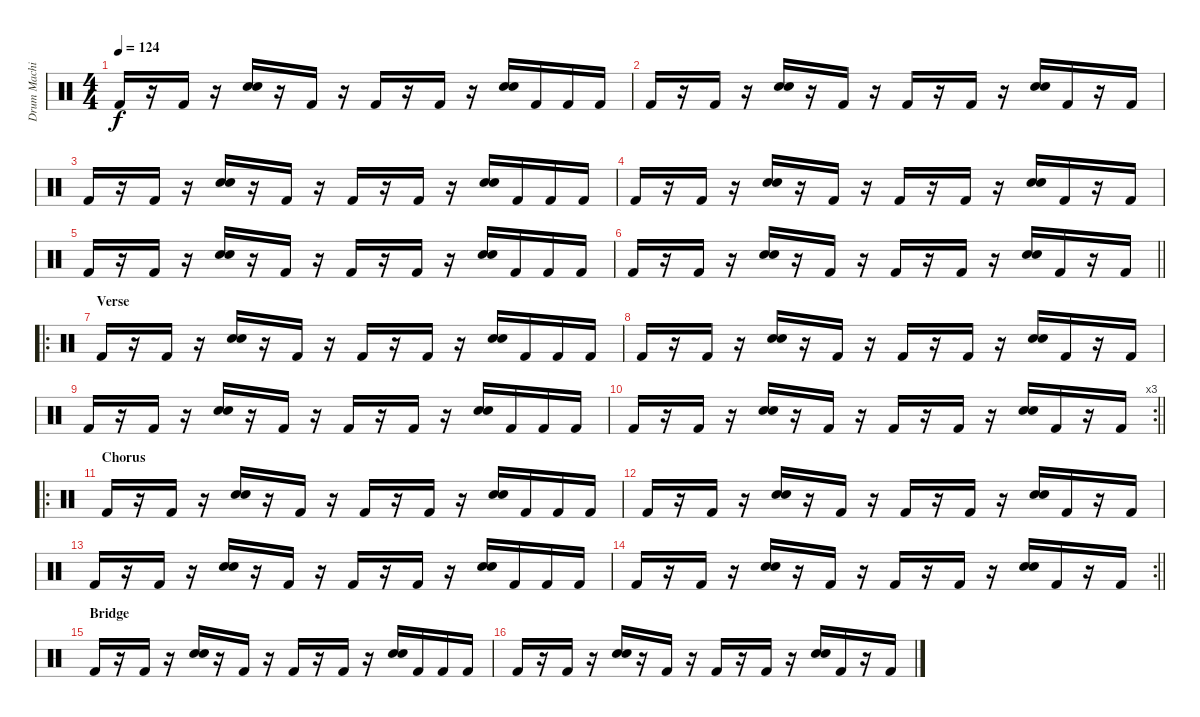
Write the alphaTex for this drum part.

\track ("Drum Machine" "Drum Machi") {instrument percussion}
\staff {score}
\articulation defaults
\ts (4 4)
\tempo 124
\clef neutral
\ks c "Kick (hit) 2".16{dy f}
r.16 "Kick (hit) 2".16 r.16 ("Electric Snare (hit)" "Hand Clap (hit)").16 r.16 "Kick (hit) 2".16 r.16 "Kick (hit) 2".16 r.16 "Kick (hit) 2".16 r.16 ("Electric Snare (hit)" "Hand Clap (hit)").16 "Kick (hit) 2".16 "Kick (hit) 2".16 "Kick (hit) 2".16 |
"Kick (hit) 2".16 r.16 "Kick (hit) 2".16 r.16 ("Electric Snare (hit)" "Hand Clap (hit)").16 r.16 "Kick (hit) 2".16 r.16 "Kick (hit) 2".16 r.16 "Kick (hit) 2".16 r.16 ("Electric Snare (hit)" "Hand Clap (hit)").16 "Kick (hit) 2".16 r.16 "Kick (hit) 2".16 |
"Kick (hit) 2".16 r.16 "Kick (hit) 2".16 r.16 ("Electric Snare (hit)" "Hand Clap (hit)").16 r.16 "Kick (hit) 2".16 r.16 "Kick (hit) 2".16 r.16 "Kick (hit) 2".16 r.16 ("Electric Snare (hit)" "Hand Clap (hit)").16 "Kick (hit) 2".16 "Kick (hit) 2".16 "Kick (hit) 2".16 |
"Kick (hit) 2".16 r.16 "Kick (hit) 2".16 r.16 ("Electric Snare (hit)" "Hand Clap (hit)").16 r.16 "Kick (hit) 2".16 r.16 "Kick (hit) 2".16 r.16 "Kick (hit) 2".16 r.16 ("Electric Snare (hit)" "Hand Clap (hit)").16 "Kick (hit) 2".16 r.16 "Kick (hit) 2".16 |
"Kick (hit) 2".16 r.16 "Kick (hit) 2".16 r.16 ("Electric Snare (hit)" "Hand Clap (hit)").16 r.16 "Kick (hit) 2".16 r.16 "Kick (hit) 2".16 r.16 "Kick (hit) 2".16 r.16 ("Electric Snare (hit)" "Hand Clap (hit)").16 "Kick (hit) 2".16 "Kick (hit) 2".16 "Kick (hit) 2".16 |
\barLineRight lightlight "Kick (hit) 2".16
r.16 "Kick (hit) 2".16 r.16 ("Electric Snare (hit)" "Hand Clap (hit)").16 r.16 "Kick (hit) 2".16 r.16 "Kick (hit) 2".16 r.16 "Kick (hit) 2".16 r.16 ("Electric Snare (hit)" "Hand Clap (hit)").16 "Kick (hit) 2".16 r.16 "Kick (hit) 2".16 |
\ro
\section ("" "Verse")
"Kick (hit) 2".16 r.16 "Kick (hit) 2".16 r.16 ("Electric Snare (hit)" "Hand Clap (hit)").16 r.16 "Kick (hit) 2".16 r.16 "Kick (hit) 2".16 r.16 "Kick (hit) 2".16 r.16 ("Electric Snare (hit)" "Hand Clap (hit)").16 "Kick (hit) 2".16 "Kick (hit) 2".16 "Kick (hit) 2".16 |
"Kick (hit) 2".16 r.16 "Kick (hit) 2".16 r.16 ("Electric Snare (hit)" "Hand Clap (hit)").16 r.16 "Kick (hit) 2".16 r.16 "Kick (hit) 2".16 r.16 "Kick (hit) 2".16 r.16 ("Electric Snare (hit)" "Hand Clap (hit)").16 "Kick (hit) 2".16 r.16 "Kick (hit) 2".16 |
"Kick (hit) 2".16 r.16 "Kick (hit) 2".16 r.16 ("Electric Snare (hit)" "Hand Clap (hit)").16 r.16 "Kick (hit) 2".16 r.16 "Kick (hit) 2".16 r.16 "Kick (hit) 2".16 r.16 ("Electric Snare (hit)" "Hand Clap (hit)").16 "Kick (hit) 2".16 "Kick (hit) 2".16 "Kick (hit) 2".16 |
\rc 3
\barLineRight lightlight "Kick (hit) 2".16
r.16 "Kick (hit) 2".16 r.16 ("Electric Snare (hit)" "Hand Clap (hit)").16 r.16 "Kick (hit) 2".16 r.16 "Kick (hit) 2".16 r.16 "Kick (hit) 2".16 r.16 ("Electric Snare (hit)" "Hand Clap (hit)").16 "Kick (hit) 2".16 r.16 "Kick (hit) 2".16 |
\ro
\section ("" "Chorus")
"Kick (hit) 2".16 r.16 "Kick (hit) 2".16 r.16 ("Electric Snare (hit)" "Hand Clap (hit)").16 r.16 "Kick (hit) 2".16 r.16 "Kick (hit) 2".16 r.16 "Kick (hit) 2".16 r.16 ("Electric Snare (hit)" "Hand Clap (hit)").16 "Kick (hit) 2".16 "Kick (hit) 2".16 "Kick (hit) 2".16 |
"Kick (hit) 2".16 r.16 "Kick (hit) 2".16 r.16 ("Electric Snare (hit)" "Hand Clap (hit)").16 r.16 "Kick (hit) 2".16 r.16 "Kick (hit) 2".16 r.16 "Kick (hit) 2".16 r.16 ("Electric Snare (hit)" "Hand Clap (hit)").16 "Kick (hit) 2".16 r.16 "Kick (hit) 2".16 |
"Kick (hit) 2".16 r.16 "Kick (hit) 2".16 r.16 ("Electric Snare (hit)" "Hand Clap (hit)").16 r.16 "Kick (hit) 2".16 r.16 "Kick (hit) 2".16 r.16 "Kick (hit) 2".16 r.16 ("Electric Snare (hit)" "Hand Clap (hit)").16 "Kick (hit) 2".16 "Kick (hit) 2".16 "Kick (hit) 2".16 |
\rc 2
\barLineRight lightlight "Kick (hit) 2".16
r.16 "Kick (hit) 2".16 r.16 ("Electric Snare (hit)" "Hand Clap (hit)").16 r.16 "Kick (hit) 2".16 r.16 "Kick (hit) 2".16 r.16 "Kick (hit) 2".16 r.16 ("Electric Snare (hit)" "Hand Clap (hit)").16 "Kick (hit) 2".16 r.16 "Kick (hit) 2".16 |
\section ("" "Bridge")
"Kick (hit) 2".16 r.16 "Kick (hit) 2".16 r.16 ("Electric Snare (hit)" "Hand Clap (hit)").16 r.16 "Kick (hit) 2".16 r.16 "Kick (hit) 2".16 r.16 "Kick (hit) 2".16 r.16 ("Electric Snare (hit)" "Hand Clap (hit)").16 "Kick (hit) 2".16 "Kick (hit) 2".16 "Kick (hit) 2".16 |
"Kick (hit) 2".16 r.16 "Kick (hit) 2".16 r.16 ("Electric Snare (hit)" "Hand Clap (hit)").16 r.16 "Kick (hit) 2".16 r.16 "Kick (hit) 2".16 r.16 "Kick (hit) 2".16 r.16 ("Electric Snare (hit)" "Hand Clap (hit)").16 "Kick (hit) 2".16 r.16 "Kick (hit) 2".16
